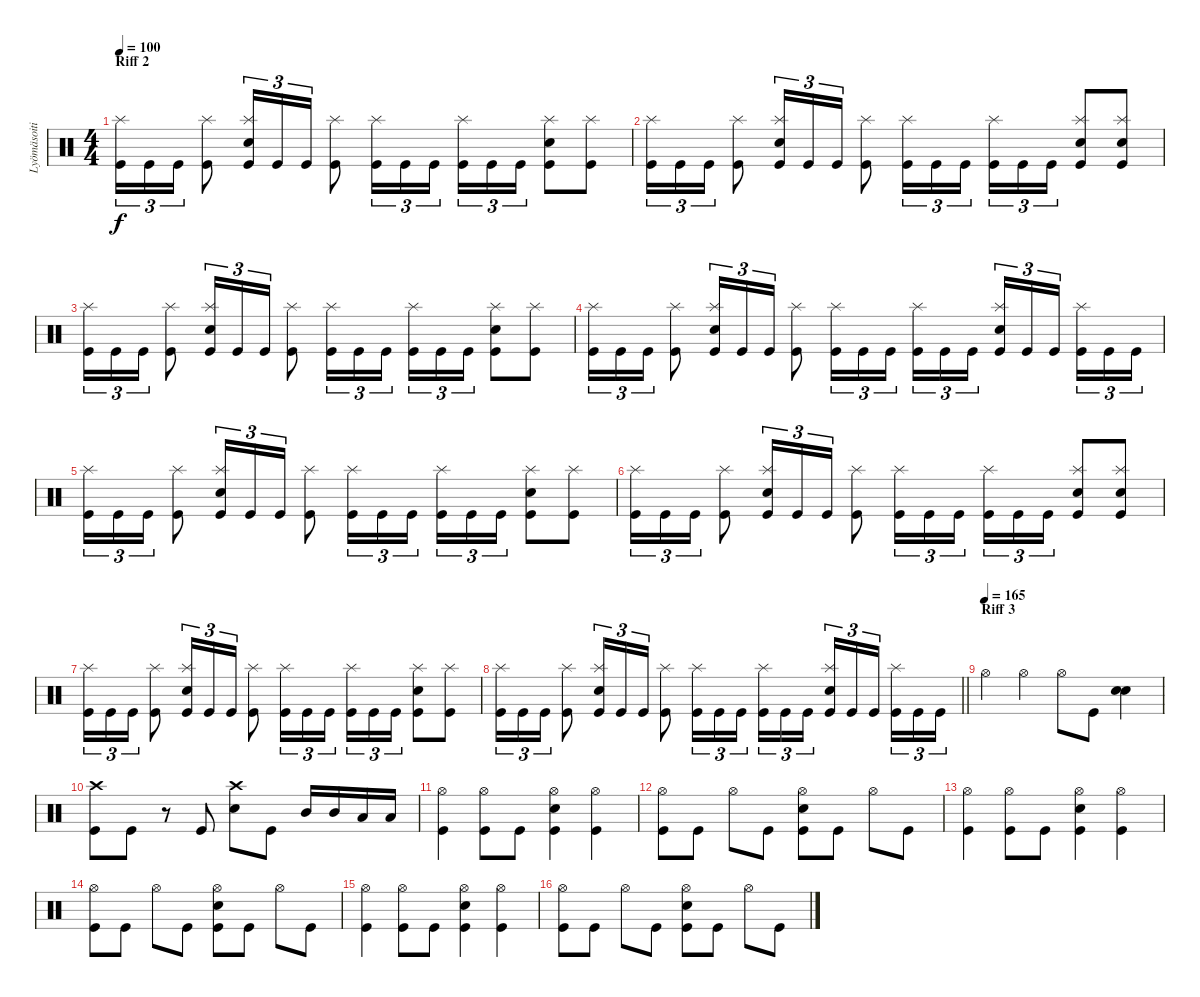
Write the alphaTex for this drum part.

\track ("Lyömäsoitin" "Lyömäsoiti") {instrument percussion}
\staff {score}
\articulation defaults
\ts (4 4)
\section ("" "Riff 2")
\tempo 100
\clef neutral
\ks c
("Kick (hit)" "Splash (hit)").16{tu (3 2) dy f} "Kick (hit)".16{tu (3 2)} "Kick (hit)".16{tu (3 2)} ("Kick (hit)" "Splash (hit)").8 ("Kick (hit)" "Splash (hit)" "Electric Snare (hit)").16{tu (3 2)} "Kick (hit)".16{tu (3 2)} "Kick (hit)".16{tu (3 2)} ("Kick (hit)" "Splash (hit)").8 ("Kick (hit)" "Splash (hit)").16{tu (3 2)} "Kick (hit)".16{tu (3 2)} "Kick (hit)".16{tu (3 2) beam splitsecondary} ("Kick (hit)" "Splash (hit)").16{tu (3 2)} "Kick (hit)".16{tu (3 2)} "Kick (hit)".16{tu (3 2)} ("Kick (hit)" "Electric Snare (hit)" "Splash (hit)").8 ("Kick (hit)" "Splash (hit)").8 |
("Kick (hit)" "Splash (hit)").16{tu (3 2)} "Kick (hit)".16{tu (3 2)} "Kick (hit)".16{tu (3 2)} ("Kick (hit)" "Splash (hit)").8 ("Kick (hit)" "Splash (hit)" "Electric Snare (hit)").16{tu (3 2)} "Kick (hit)".16{tu (3 2)} "Kick (hit)".16{tu (3 2)} ("Kick (hit)" "Splash (hit)").8 ("Kick (hit)" "Splash (hit)").16{tu (3 2)} "Kick (hit)".16{tu (3 2)} "Kick (hit)".16{tu (3 2) beam splitsecondary} ("Kick (hit)" "Splash (hit)").16{tu (3 2)} "Kick (hit)".16{tu (3 2)} "Kick (hit)".16{tu (3 2)} ("Kick (hit)" "Electric Snare (hit)" "Splash (hit)").8 ("Kick (hit)" "Splash (hit)" "Electric Snare (hit)").8 |
("Kick (hit)" "Splash (hit)").16{tu (3 2)} "Kick (hit)".16{tu (3 2)} "Kick (hit)".16{tu (3 2)} ("Kick (hit)" "Splash (hit)").8 ("Kick (hit)" "Splash (hit)" "Electric Snare (hit)").16{tu (3 2)} "Kick (hit)".16{tu (3 2)} "Kick (hit)".16{tu (3 2)} ("Kick (hit)" "Splash (hit)").8 ("Kick (hit)" "Splash (hit)").16{tu (3 2)} "Kick (hit)".16{tu (3 2)} "Kick (hit)".16{tu (3 2) beam splitsecondary} ("Kick (hit)" "Splash (hit)").16{tu (3 2)} "Kick (hit)".16{tu (3 2)} "Kick (hit)".16{tu (3 2)} ("Kick (hit)" "Electric Snare (hit)" "Splash (hit)").8 ("Kick (hit)" "Splash (hit)").8 |
("Kick (hit)" "Splash (hit)").16{tu (3 2)} "Kick (hit)".16{tu (3 2)} "Kick (hit)".16{tu (3 2)} ("Kick (hit)" "Splash (hit)").8 ("Kick (hit)" "Splash (hit)" "Electric Snare (hit)").16{tu (3 2)} "Kick (hit)".16{tu (3 2)} "Kick (hit)".16{tu (3 2)} ("Kick (hit)" "Splash (hit)").8 ("Kick (hit)" "Splash (hit)").16{tu (3 2)} "Kick (hit)".16{tu (3 2)} "Kick (hit)".16{tu (3 2) beam splitsecondary} ("Kick (hit)" "Splash (hit)").16{tu (3 2)} "Kick (hit)".16{tu (3 2)} "Kick (hit)".16{tu (3 2)} ("Kick (hit)" "Splash (hit)" "Electric Snare (hit)").16{tu (3 2)} "Kick (hit)".16{tu (3 2)} "Kick (hit)".16{tu (3 2) beam splitsecondary} ("Kick (hit)" "Splash (hit)").16{tu (3 2)} "Kick (hit)".16{tu (3 2)} "Kick (hit)".16{tu (3 2)} |
("Kick (hit)" "Splash (hit)").16{tu (3 2)} "Kick (hit)".16{tu (3 2)} "Kick (hit)".16{tu (3 2)} ("Kick (hit)" "Splash (hit)").8 ("Kick (hit)" "Splash (hit)" "Electric Snare (hit)").16{tu (3 2)} "Kick (hit)".16{tu (3 2)} "Kick (hit)".16{tu (3 2)} ("Kick (hit)" "Splash (hit)").8 ("Kick (hit)" "Splash (hit)").16{tu (3 2)} "Kick (hit)".16{tu (3 2)} "Kick (hit)".16{tu (3 2) beam splitsecondary} ("Kick (hit)" "Splash (hit)").16{tu (3 2)} "Kick (hit)".16{tu (3 2)} "Kick (hit)".16{tu (3 2)} ("Kick (hit)" "Electric Snare (hit)" "Splash (hit)").8 ("Kick (hit)" "Splash (hit)").8 |
("Kick (hit)" "Splash (hit)").16{tu (3 2)} "Kick (hit)".16{tu (3 2)} "Kick (hit)".16{tu (3 2)} ("Kick (hit)" "Splash (hit)").8 ("Kick (hit)" "Splash (hit)" "Electric Snare (hit)").16{tu (3 2)} "Kick (hit)".16{tu (3 2)} "Kick (hit)".16{tu (3 2)} ("Kick (hit)" "Splash (hit)").8 ("Kick (hit)" "Splash (hit)").16{tu (3 2)} "Kick (hit)".16{tu (3 2)} "Kick (hit)".16{tu (3 2) beam splitsecondary} ("Kick (hit)" "Splash (hit)").16{tu (3 2)} "Kick (hit)".16{tu (3 2)} "Kick (hit)".16{tu (3 2)} ("Kick (hit)" "Electric Snare (hit)" "Splash (hit)").8 ("Kick (hit)" "Splash (hit)" "Electric Snare (hit)").8 |
("Kick (hit)" "Splash (hit)").16{tu (3 2)} "Kick (hit)".16{tu (3 2)} "Kick (hit)".16{tu (3 2)} ("Kick (hit)" "Splash (hit)").8 ("Kick (hit)" "Splash (hit)" "Electric Snare (hit)").16{tu (3 2)} "Kick (hit)".16{tu (3 2)} "Kick (hit)".16{tu (3 2)} ("Kick (hit)" "Splash (hit)").8 ("Kick (hit)" "Splash (hit)").16{tu (3 2)} "Kick (hit)".16{tu (3 2)} "Kick (hit)".16{tu (3 2) beam splitsecondary} ("Kick (hit)" "Splash (hit)").16{tu (3 2)} "Kick (hit)".16{tu (3 2)} "Kick (hit)".16{tu (3 2)} ("Kick (hit)" "Electric Snare (hit)" "Splash (hit)").8 ("Kick (hit)" "Splash (hit)").8 |
\barLineRight lightlight
("Kick (hit)" "Splash (hit)").16{tu (3 2)} "Kick (hit)".16{tu (3 2)} "Kick (hit)".16{tu (3 2)} ("Kick (hit)" "Splash (hit)").8 ("Kick (hit)" "Splash (hit)" "Electric Snare (hit)").16{tu (3 2)} "Kick (hit)".16{tu (3 2)} "Kick (hit)".16{tu (3 2)} ("Kick (hit)" "Splash (hit)").8 ("Kick (hit)" "Splash (hit)").16{tu (3 2)} "Kick (hit)".16{tu (3 2)} "Kick (hit)".16{tu (3 2) beam splitsecondary} ("Kick (hit)" "Splash (hit)").16{tu (3 2)} "Kick (hit)".16{tu (3 2)} "Kick (hit)".16{tu (3 2)} ("Kick (hit)" "Splash (hit)" "Electric Snare (hit)").16{tu (3 2)} "Kick (hit)".16{tu (3 2)} "Kick (hit)".16{tu (3 2) beam splitsecondary} ("Kick (hit)" "Splash (hit)").16{tu (3 2)} "Kick (hit)".16{tu (3 2)} "Kick (hit)".16{tu (3 2)} |
\section ("" "Riff 3")
\tempo (165)
"Hi-Hat (open)".4 "Hi-Hat (open)".4 "Hi-Hat (open)".8 "Kick (hit)".8 ("Electric Snare (hit)" "Electric Snare (hit)").4 |
("Crash high (hit)" "Kick (hit)").8 "Kick (hit)".8 r.8 "Kick (hit)".8 ("Electric Snare (hit)" "Crash high (hit)").8 "Kick (hit)".8 "Mid Tom (hit)".16 "Mid Tom (hit)".16 "Low Tom (hit)".16 "Low Tom (hit)".16 |
("Kick (hit)" "Hi-Hat (open)").4 ("Hi-Hat (open)" "Kick (hit)").8 "Kick (hit)".8 ("Electric Snare (hit)" "Hi-Hat (open)" "Kick (hit)").4 ("Kick (hit)" "Hi-Hat (open)").4 |
("Kick (hit)" "Hi-Hat (open)").8 "Kick (hit)".8 "Hi-Hat (open)".8 "Kick (hit)".8 ("Kick (hit)" "Hi-Hat (open)" "Electric Snare (hit)").8 "Kick (hit)".8 "Hi-Hat (open)".8 "Kick (hit)".8 |
("Kick (hit)" "Hi-Hat (open)").4 ("Hi-Hat (open)" "Kick (hit)").8 "Kick (hit)".8 ("Electric Snare (hit)" "Hi-Hat (open)" "Kick (hit)").4 ("Kick (hit)" "Hi-Hat (open)").4 |
("Kick (hit)" "Hi-Hat (open)").8 "Kick (hit)".8 "Hi-Hat (open)".8 "Kick (hit)".8 ("Kick (hit)" "Hi-Hat (open)" "Electric Snare (hit)").8 "Kick (hit)".8 "Hi-Hat (open)".8 "Kick (hit)".8 |
("Kick (hit)" "Hi-Hat (open)").4 ("Hi-Hat (open)" "Kick (hit)").8 "Kick (hit)".8 ("Electric Snare (hit)" "Hi-Hat (open)" "Kick (hit)").4 ("Kick (hit)" "Hi-Hat (open)").4 |
("Kick (hit)" "Hi-Hat (open)").8 "Kick (hit)".8 "Hi-Hat (open)".8 "Kick (hit)".8 ("Kick (hit)" "Hi-Hat (open)" "Electric Snare (hit)").8 "Kick (hit)".8 "Hi-Hat (open)".8 "Kick (hit)".8
